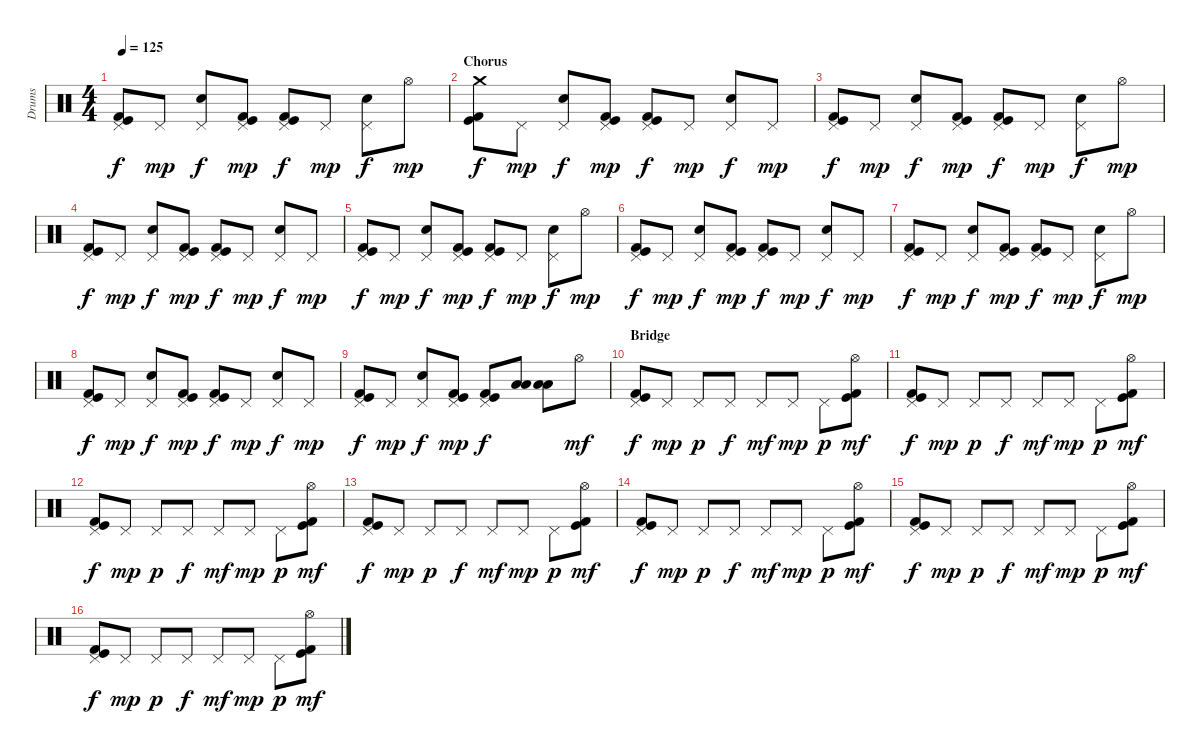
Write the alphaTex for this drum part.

\track ("Drums" "Drums") {instrument percussion}
\staff {score}
\articulation defaults
\ts (4 4)
\tempo 125
\clef neutral
\ks c
("Pedal Hi-Hat (hit)" "Kick (hit) 2" "Kick (hit)").8{dy f} "Pedal Hi-Hat (hit)".8{dy mp} ("Pedal Hi-Hat (hit)" "Electric Snare (hit)").8{dy f} ("Pedal Hi-Hat (hit)" "Kick (hit) 2" "Kick (hit)").8{dy mp} ("Pedal Hi-Hat (hit)" "Kick (hit) 2" "Kick (hit)").8{dy f} "Pedal Hi-Hat (hit)".8{dy mp} ("Pedal Hi-Hat (hit)" "Electric Snare (hit)").8{dy f} "Hi-Hat (open)".8{dy mp} |
\section ("" "Chorus")
("Crash medium (hit)" "Kick (hit) 2" "Kick (hit)").8{dy f} "Pedal Hi-Hat (hit)".8{dy mp} ("Pedal Hi-Hat (hit)" "Electric Snare (hit)").8{dy f} ("Pedal Hi-Hat (hit)" "Kick (hit) 2" "Kick (hit)").8{dy mp} ("Pedal Hi-Hat (hit)" "Kick (hit) 2" "Kick (hit)").8{dy f} "Pedal Hi-Hat (hit)".8{dy mp} ("Pedal Hi-Hat (hit)" "Electric Snare (hit)").8{dy f} "Pedal Hi-Hat (hit)".8{dy mp} |
("Pedal Hi-Hat (hit)" "Kick (hit) 2" "Kick (hit)").8{dy f} "Pedal Hi-Hat (hit)".8{dy mp} ("Pedal Hi-Hat (hit)" "Electric Snare (hit)").8{dy f} ("Pedal Hi-Hat (hit)" "Kick (hit) 2" "Kick (hit)").8{dy mp} ("Pedal Hi-Hat (hit)" "Kick (hit) 2" "Kick (hit)").8{dy f} "Pedal Hi-Hat (hit)".8{dy mp} ("Pedal Hi-Hat (hit)" "Electric Snare (hit)").8{dy f} "Hi-Hat (open)".8{dy mp} |
("Pedal Hi-Hat (hit)" "Kick (hit) 2" "Kick (hit)").8{dy f} "Pedal Hi-Hat (hit)".8{dy mp} ("Pedal Hi-Hat (hit)" "Electric Snare (hit)").8{dy f} ("Pedal Hi-Hat (hit)" "Kick (hit) 2" "Kick (hit)").8{dy mp} ("Pedal Hi-Hat (hit)" "Kick (hit) 2" "Kick (hit)").8{dy f} "Pedal Hi-Hat (hit)".8{dy mp} ("Pedal Hi-Hat (hit)" "Electric Snare (hit)").8{dy f} "Pedal Hi-Hat (hit)".8{dy mp} |
("Pedal Hi-Hat (hit)" "Kick (hit) 2" "Kick (hit)").8{dy f} "Pedal Hi-Hat (hit)".8{dy mp} ("Pedal Hi-Hat (hit)" "Electric Snare (hit)").8{dy f} ("Pedal Hi-Hat (hit)" "Kick (hit) 2" "Kick (hit)").8{dy mp} ("Pedal Hi-Hat (hit)" "Kick (hit) 2" "Kick (hit)").8{dy f} "Pedal Hi-Hat (hit)".8{dy mp} ("Pedal Hi-Hat (hit)" "Electric Snare (hit)").8{dy f} "Hi-Hat (open)".8{dy mp} |
("Pedal Hi-Hat (hit)" "Kick (hit) 2" "Kick (hit)").8{dy f} "Pedal Hi-Hat (hit)".8{dy mp} ("Pedal Hi-Hat (hit)" "Electric Snare (hit)").8{dy f} ("Pedal Hi-Hat (hit)" "Kick (hit) 2" "Kick (hit)").8{dy mp} ("Pedal Hi-Hat (hit)" "Kick (hit) 2" "Kick (hit)").8{dy f} "Pedal Hi-Hat (hit)".8{dy mp} ("Pedal Hi-Hat (hit)" "Electric Snare (hit)").8{dy f} "Pedal Hi-Hat (hit)".8{dy mp} |
("Pedal Hi-Hat (hit)" "Kick (hit) 2" "Kick (hit)").8{dy f} "Pedal Hi-Hat (hit)".8{dy mp} ("Pedal Hi-Hat (hit)" "Electric Snare (hit)").8{dy f} ("Pedal Hi-Hat (hit)" "Kick (hit) 2" "Kick (hit)").8{dy mp} ("Pedal Hi-Hat (hit)" "Kick (hit) 2" "Kick (hit)").8{dy f} "Pedal Hi-Hat (hit)".8{dy mp} ("Pedal Hi-Hat (hit)" "Electric Snare (hit)").8{dy f} "Hi-Hat (open)".8{dy mp} |
("Pedal Hi-Hat (hit)" "Kick (hit) 2" "Kick (hit)").8{dy f} "Pedal Hi-Hat (hit)".8{dy mp} ("Pedal Hi-Hat (hit)" "Electric Snare (hit)").8{dy f} ("Pedal Hi-Hat (hit)" "Kick (hit) 2" "Kick (hit)").8{dy mp} ("Pedal Hi-Hat (hit)" "Kick (hit) 2" "Kick (hit)").8{dy f} "Pedal Hi-Hat (hit)".8{dy mp} ("Pedal Hi-Hat (hit)" "Electric Snare (hit)").8{dy f} "Pedal Hi-Hat (hit)".8{dy mp} |
("Pedal Hi-Hat (hit)" "Kick (hit) 2" "Kick (hit)").8{dy f} "Pedal Hi-Hat (hit)".8{dy mp} ("Pedal Hi-Hat (hit)" "Electric Snare (hit)").8{dy f} ("Pedal Hi-Hat (hit)" "Kick (hit) 2" "Kick (hit)").8{dy mp} ("Pedal Hi-Hat (hit)" "Kick (hit) 2" "Kick (hit)").8{dy f} ("Low Tom (hit)" "Low Tom (hit)").8 ("Low Tom (hit)" "Low Tom (hit)").8 "Hi-Hat (open)".8{dy mf} |
\section ("" "Bridge")
("Pedal Hi-Hat (hit)" "Kick (hit) 2" "Kick (hit)").8{dy f} "Pedal Hi-Hat (hit)".8{dy mp} "Pedal Hi-Hat (hit)".8{dy p} "Pedal Hi-Hat (hit)".8{dy f} "Pedal Hi-Hat (hit)".8{dy mf} "Pedal Hi-Hat (hit)".8{dy mp} "Pedal Hi-Hat (hit)".8{dy p} ("Hi-Hat (open)" "Kick (hit) 2" "Kick (hit)").8{dy mf} |
("Pedal Hi-Hat (hit)" "Kick (hit) 2" "Kick (hit)").8{dy f} "Pedal Hi-Hat (hit)".8{dy mp} "Pedal Hi-Hat (hit)".8{dy p} "Pedal Hi-Hat (hit)".8{dy f} "Pedal Hi-Hat (hit)".8{dy mf} "Pedal Hi-Hat (hit)".8{dy mp} "Pedal Hi-Hat (hit)".8{dy p} ("Hi-Hat (open)" "Kick (hit) 2" "Kick (hit)").8{dy mf} |
("Pedal Hi-Hat (hit)" "Kick (hit) 2" "Kick (hit)").8{dy f} "Pedal Hi-Hat (hit)".8{dy mp} "Pedal Hi-Hat (hit)".8{dy p} "Pedal Hi-Hat (hit)".8{dy f} "Pedal Hi-Hat (hit)".8{dy mf} "Pedal Hi-Hat (hit)".8{dy mp} "Pedal Hi-Hat (hit)".8{dy p} ("Hi-Hat (open)" "Kick (hit) 2" "Kick (hit)").8{dy mf} |
("Pedal Hi-Hat (hit)" "Kick (hit) 2" "Kick (hit)").8{dy f} "Pedal Hi-Hat (hit)".8{dy mp} "Pedal Hi-Hat (hit)".8{dy p} "Pedal Hi-Hat (hit)".8{dy f} "Pedal Hi-Hat (hit)".8{dy mf} "Pedal Hi-Hat (hit)".8{dy mp} "Pedal Hi-Hat (hit)".8{dy p} ("Hi-Hat (open)" "Kick (hit) 2" "Kick (hit)").8{dy mf} |
("Pedal Hi-Hat (hit)" "Kick (hit) 2" "Kick (hit)").8{dy f} "Pedal Hi-Hat (hit)".8{dy mp} "Pedal Hi-Hat (hit)".8{dy p} "Pedal Hi-Hat (hit)".8{dy f} "Pedal Hi-Hat (hit)".8{dy mf} "Pedal Hi-Hat (hit)".8{dy mp} "Pedal Hi-Hat (hit)".8{dy p} ("Hi-Hat (open)" "Kick (hit) 2" "Kick (hit)").8{dy mf} |
("Pedal Hi-Hat (hit)" "Kick (hit) 2" "Kick (hit)").8{dy f} "Pedal Hi-Hat (hit)".8{dy mp} "Pedal Hi-Hat (hit)".8{dy p} "Pedal Hi-Hat (hit)".8{dy f} "Pedal Hi-Hat (hit)".8{dy mf} "Pedal Hi-Hat (hit)".8{dy mp} "Pedal Hi-Hat (hit)".8{dy p} ("Hi-Hat (open)" "Kick (hit) 2" "Kick (hit)").8{dy mf} |
("Pedal Hi-Hat (hit)" "Kick (hit) 2" "Kick (hit)").8{dy f} "Pedal Hi-Hat (hit)".8{dy mp} "Pedal Hi-Hat (hit)".8{dy p} "Pedal Hi-Hat (hit)".8{dy f} "Pedal Hi-Hat (hit)".8{dy mf} "Pedal Hi-Hat (hit)".8{dy mp} "Pedal Hi-Hat (hit)".8{dy p} ("Hi-Hat (open)" "Kick (hit) 2" "Kick (hit)").8{dy mf}
